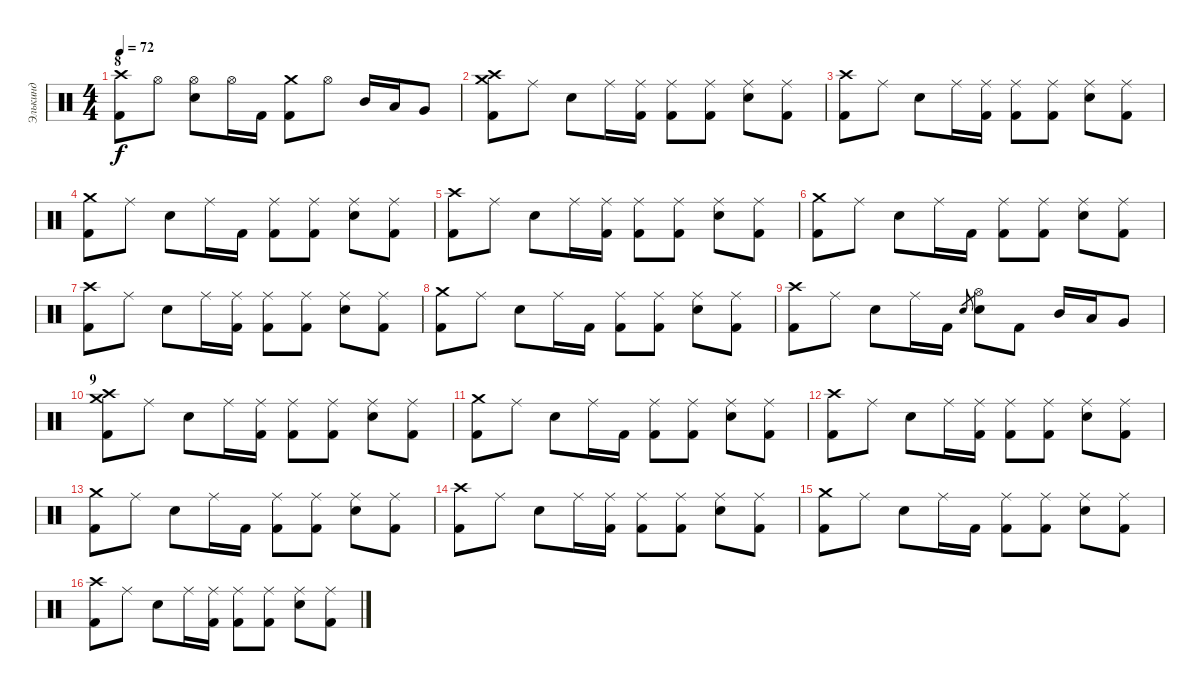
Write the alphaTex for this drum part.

\track ("Элькинд" "Элькинд") {instrument percussion}
\staff {score}
\articulation defaults
\ts (4 4)
\section ("" "8")
\tempo 72
\clef neutral
\ks c
("Crash high (hit)" "Kick (hit) 2").8{dy f} "Hi-Hat (open)".8 ("Hi-Hat (open)" "Snare (hit) 2").8 "Hi-Hat (open)".16 "Kick (hit) 2".16 ("Crash medium (hit)" "Kick (hit) 2").8 "Hi-Hat (open)".8 "Mid Tom (hit)".16 "Low Tom (hit)".16 "Very Low Tom (hit)".8 |
("Crash high (hit)" "Crash medium (hit)" "Kick (hit) 2").8 "Ride (middle)".8 "Snare (hit) 2".8 "Ride (middle)".16 ("Ride (middle)" "Kick (hit) 2").16 ("Ride (middle)" "Kick (hit) 2").8 ("Ride (middle)" "Kick (hit) 2").8 ("Ride (middle)" "Snare (hit) 2").8 ("Ride (middle)" "Kick (hit) 2").8 |
("Crash high (hit)" "Kick (hit) 2").8 "Ride (middle)".8 "Snare (hit) 2".8 "Ride (middle)".16 ("Ride (middle)" "Kick (hit) 2").16 ("Ride (middle)" "Kick (hit) 2").8 ("Ride (middle)" "Kick (hit) 2").8 ("Ride (middle)" "Snare (hit) 2").8 ("Ride (middle)" "Kick (hit) 2").8 |
("Crash medium (hit)" "Kick (hit) 2").8 "Ride (middle)".8 "Snare (hit) 2".8 "Ride (middle)".16 "Kick (hit) 2".16 ("Ride (middle)" "Kick (hit) 2").8 ("Ride (middle)" "Kick (hit) 2").8 ("Ride (middle)" "Snare (hit) 2").8 ("Ride (middle)" "Kick (hit) 2").8 |
("Crash high (hit)" "Kick (hit) 2").8 "Ride (middle)".8 "Snare (hit) 2".8 "Ride (middle)".16 ("Ride (middle)" "Kick (hit) 2").16 ("Ride (middle)" "Kick (hit) 2").8 ("Ride (middle)" "Kick (hit) 2").8 ("Ride (middle)" "Snare (hit) 2").8 ("Ride (middle)" "Kick (hit) 2").8 |
("Crash medium (hit)" "Kick (hit) 2").8 "Ride (middle)".8 "Snare (hit) 2".8 "Ride (middle)".16 "Kick (hit) 2".16 ("Ride (middle)" "Kick (hit) 2").8 ("Ride (middle)" "Kick (hit) 2").8 ("Ride (middle)" "Snare (hit) 2").8 ("Ride (middle)" "Kick (hit) 2").8 |
("Crash high (hit)" "Kick (hit) 2").8 "Ride (middle)".8 "Snare (hit) 2".8 "Ride (middle)".16 ("Ride (middle)" "Kick (hit) 2").16 ("Ride (middle)" "Kick (hit) 2").8 ("Ride (middle)" "Kick (hit) 2").8 ("Ride (middle)" "Snare (hit) 2").8 ("Ride (middle)" "Kick (hit) 2").8 |
("Crash medium (hit)" "Kick (hit) 2").8 "Ride (middle)".8 "Snare (hit) 2".8 "Ride (middle)".16 "Kick (hit) 2".16 ("Ride (middle)" "Kick (hit) 2").8 ("Ride (middle)" "Kick (hit) 2").8 ("Ride (middle)" "Snare (hit) 2").8 ("Ride (middle)" "Kick (hit) 2").8 |
("Crash high (hit)" "Kick (hit) 2").8 "Ride (middle)".8 "Snare (hit) 2".8 "Ride (middle)".16 "Kick (hit) 2".16 "Snare (hit) 2".8{gr} ("Hi-Hat (open)" "Snare (hit) 2").8 "Kick (hit) 2".8 "Mid Tom (hit)".16 "Low Tom (hit)".16 "Very Low Tom (hit)".8 |
\section ("" "9")
("Crash high (hit)" "Crash medium (hit)" "Kick (hit) 2").8 "Ride (middle)".8 "Snare (hit) 2".8 "Ride (middle)".16 ("Ride (middle)" "Kick (hit) 2").16 ("Ride (middle)" "Kick (hit) 2").8 ("Ride (middle)" "Kick (hit) 2").8 ("Ride (middle)" "Snare (hit) 2").8 ("Ride (middle)" "Kick (hit) 2").8 |
("Crash medium (hit)" "Kick (hit) 2").8 "Ride (middle)".8 "Snare (hit) 2".8 "Ride (middle)".16 "Kick (hit) 2".16 ("Ride (middle)" "Kick (hit) 2").8 ("Ride (middle)" "Kick (hit) 2").8 ("Ride (middle)" "Snare (hit) 2").8 ("Ride (middle)" "Kick (hit) 2").8 |
("Crash high (hit)" "Kick (hit) 2").8 "Ride (middle)".8 "Snare (hit) 2".8 "Ride (middle)".16 ("Ride (middle)" "Kick (hit) 2").16 ("Ride (middle)" "Kick (hit) 2").8 ("Ride (middle)" "Kick (hit) 2").8 ("Ride (middle)" "Snare (hit) 2").8 ("Ride (middle)" "Kick (hit) 2").8 |
("Crash medium (hit)" "Kick (hit) 2").8 "Ride (middle)".8 "Snare (hit) 2".8 "Ride (middle)".16 "Kick (hit) 2".16 ("Ride (middle)" "Kick (hit) 2").8 ("Ride (middle)" "Kick (hit) 2").8 ("Ride (middle)" "Snare (hit) 2").8 ("Ride (middle)" "Kick (hit) 2").8 |
("Crash high (hit)" "Kick (hit) 2").8 "Ride (middle)".8 "Snare (hit) 2".8 "Ride (middle)".16 ("Ride (middle)" "Kick (hit) 2").16 ("Ride (middle)" "Kick (hit) 2").8 ("Ride (middle)" "Kick (hit) 2").8 ("Ride (middle)" "Snare (hit) 2").8 ("Ride (middle)" "Kick (hit) 2").8 |
("Crash medium (hit)" "Kick (hit) 2").8 "Ride (middle)".8 "Snare (hit) 2".8 "Ride (middle)".16 "Kick (hit) 2".16 ("Ride (middle)" "Kick (hit) 2").8 ("Ride (middle)" "Kick (hit) 2").8 ("Ride (middle)" "Snare (hit) 2").8 ("Ride (middle)" "Kick (hit) 2").8 |
("Crash high (hit)" "Kick (hit) 2").8 "Ride (middle)".8 "Snare (hit) 2".8 "Ride (middle)".16 ("Ride (middle)" "Kick (hit) 2").16 ("Ride (middle)" "Kick (hit) 2").8 ("Ride (middle)" "Kick (hit) 2").8 ("Ride (middle)" "Snare (hit) 2").8 ("Ride (middle)" "Kick (hit) 2").8
